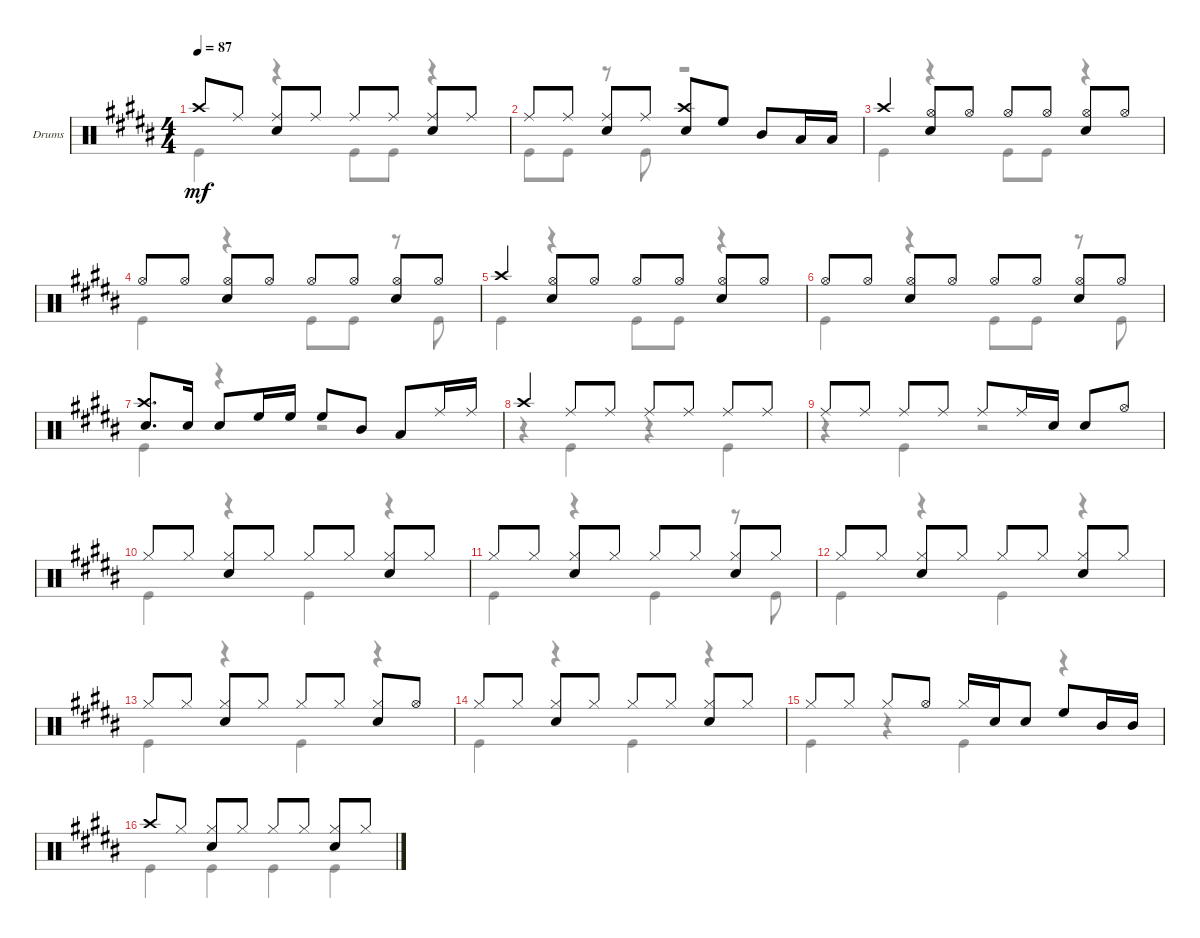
\bracketExtendMode groupsimilarinstruments
\firstSystemTrackNameOrientation horizontal
\otherSystemsTrackNameOrientation horizontal
\track ("Drums" "Drums") {multiBarRest instrument percussion}
\staff {score}
\articulation defaults
\voice
\ts (4 4)
\tempo 87
\clef neutral
\ks b "Crash high (hit)".8{dy mf} "Ride (middle)".8
("Ride (middle)" "Snare (hit) 2").8 "Ride (middle)".8 "Ride (middle)".8 "Ride (middle)".8 ("Ride (middle)" "Snare (hit) 2").8 "Ride (middle)".8 |
"Ride (middle)".8 "Ride (middle)".8 ("Ride (middle)" "Snare (hit) 2").8 "Ride (middle)".8 ("Crash high (hit)" "Snare (hit) 2").8 "High Floor Tom (hit)".8 "Mid Tom (hit)".8 "Low Tom (hit)".16 "Low Tom (hit)".16 |
"Crash high (hit)".4 ("Hi-Hat (open)" "Snare (hit) 2").8 "Hi-Hat (open)".8 "Hi-Hat (open)".8 "Hi-Hat (open)".8 ("Hi-Hat (open)" "Snare (hit) 2").8 "Hi-Hat (open)".8 |
"Hi-Hat (open)".8 "Hi-Hat (open)".8 ("Hi-Hat (open)" "Snare (hit) 2").8 "Hi-Hat (open)".8 "Hi-Hat (open)".8 "Hi-Hat (open)".8 ("Hi-Hat (open)" "Snare (hit) 2").8 "Hi-Hat (open)".8 |
"Crash high (hit)".4 ("Hi-Hat (open)" "Snare (hit) 2").8 "Hi-Hat (open)".8 "Hi-Hat (open)".8 "Hi-Hat (open)".8 ("Hi-Hat (open)" "Snare (hit) 2").8 "Hi-Hat (open)".8 |
"Hi-Hat (open)".8 "Hi-Hat (open)".8 ("Hi-Hat (open)" "Snare (hit) 2").8 "Hi-Hat (open)".8 "Hi-Hat (open)".8 "Hi-Hat (open)".8 ("Hi-Hat (open)" "Snare (hit) 2").8 "Hi-Hat (open)".8 |
("Crash high (hit)" "Snare (hit) 2").8{d} "Snare (hit) 2".16 "Snare (hit) 2".8 "High Floor Tom (hit)".16 "High Floor Tom (hit)".16 "High Floor Tom (hit)".8 "Mid Tom (hit)".8 "Low Tom (hit)".8 "Ride (middle)".16 "Ride (middle)".16 |
"Crash high (hit)".4 "Ride (middle)".8 "Ride (middle)".8 "Ride (middle)".8 "Ride (middle)".8 "Ride (middle)".8 "Ride (middle)".8 |
"Ride (middle)".8 "Ride (middle)".8 "Ride (middle)".8 "Ride (middle)".8 "Ride (middle)".8 "Ride (middle)".16 "Snare (hit) 2".16 "Snare (hit) 2".8 "Hi-Hat (open)".8 |
"Hi-Hat (closed)".8 "Hi-Hat (closed)".8 ("Hi-Hat (closed)" "Snare (hit) 2").8 "Hi-Hat (closed)".8 "Hi-Hat (closed)".8 "Hi-Hat (closed)".8 ("Hi-Hat (closed)" "Snare (hit) 2").8 "Hi-Hat (closed)".8 |
"Hi-Hat (closed)".8 "Hi-Hat (closed)".8 ("Hi-Hat (closed)" "Snare (hit) 2").8 "Hi-Hat (closed)".8 "Hi-Hat (closed)".8 "Hi-Hat (closed)".8 ("Hi-Hat (closed)" "Snare (hit) 2").8 "Hi-Hat (closed)".8 |
"Hi-Hat (closed)".8 "Hi-Hat (closed)".8 ("Hi-Hat (closed)" "Snare (hit) 2").8 "Hi-Hat (closed)".8 "Hi-Hat (closed)".8 "Hi-Hat (closed)".8 ("Hi-Hat (closed)" "Snare (hit) 2").8 "Hi-Hat (closed)".8 |
"Hi-Hat (closed)".8 "Hi-Hat (closed)".8 ("Hi-Hat (closed)" "Snare (hit) 2").8 "Hi-Hat (closed)".8 "Hi-Hat (closed)".8 "Hi-Hat (closed)".8 ("Hi-Hat (closed)" "Snare (hit) 2").8 "Hi-Hat (open)".8 |
"Hi-Hat (closed)".8 "Hi-Hat (closed)".8 ("Hi-Hat (closed)" "Snare (hit) 2").8 "Hi-Hat (closed)".8 "Hi-Hat (closed)".8 "Hi-Hat (closed)".8 ("Hi-Hat (closed)" "Snare (hit) 2").8 "Hi-Hat (closed)".8 |
"Hi-Hat (closed)".8 "Hi-Hat (closed)".8 "Hi-Hat (closed)".8 "Hi-Hat (open)".8 "Hi-Hat (closed)".16 "Snare (hit) 2".16 "Snare (hit) 2".8 "High Floor Tom (hit)".8 "Mid Tom (hit)".16 "Mid Tom (hit)".16 |
"Crash high (hit)".8 "Hi-Hat (closed)".8 ("Hi-Hat (closed)" "Snare (hit) 2").8 "Hi-Hat (closed)".8 "Hi-Hat (closed)".8 "Hi-Hat (closed)".8 ("Hi-Hat (closed)" "Snare (hit) 2").8 "Hi-Hat (closed)".8
\voice
\clef neutral
\ottava regular
\simile none
\ks b "Kick (hit)".4{dy mf}
r.4 "Kick (hit)".8 "Kick (hit)".8 r.4 |
"Kick (hit)".8 "Kick (hit)".8 r.8 "Kick (hit)".8 r.2 |
"Kick (hit)".4 r.4 "Kick (hit)".8 "Kick (hit)".8 r.4 |
"Kick (hit)".4 r.4 "Kick (hit)".8 "Kick (hit)".8 r.8 "Kick (hit)".8 |
"Kick (hit)".4 r.4 "Kick (hit)".8 "Kick (hit)".8 r.4 |
"Kick (hit)".4 r.4 "Kick (hit)".8 "Kick (hit)".8 r.8 "Kick (hit)".8 |
"Kick (hit)".4 r.4 r.2 |
r.4 "Kick (hit)".4 r.4 "Kick (hit)".4 |
r.4 "Kick (hit)".4 r.2 |
"Kick (hit)".4 r.4 "Kick (hit)".4 r.4 |
"Kick (hit)".4 r.4 "Kick (hit)".4 r.8 "Kick (hit)".8 |
"Kick (hit)".4 r.4 "Kick (hit)".4 r.4 |
"Kick (hit)".4 r.4 "Kick (hit)".4 r.4 |
"Kick (hit)".4 r.4 "Kick (hit)".4 r.4 |
"Kick (hit)".4 r.4 "Kick (hit)".4 r.4 |
"Kick (hit)".4 "Kick (hit)".4 "Kick (hit)".4 "Kick (hit)".4
